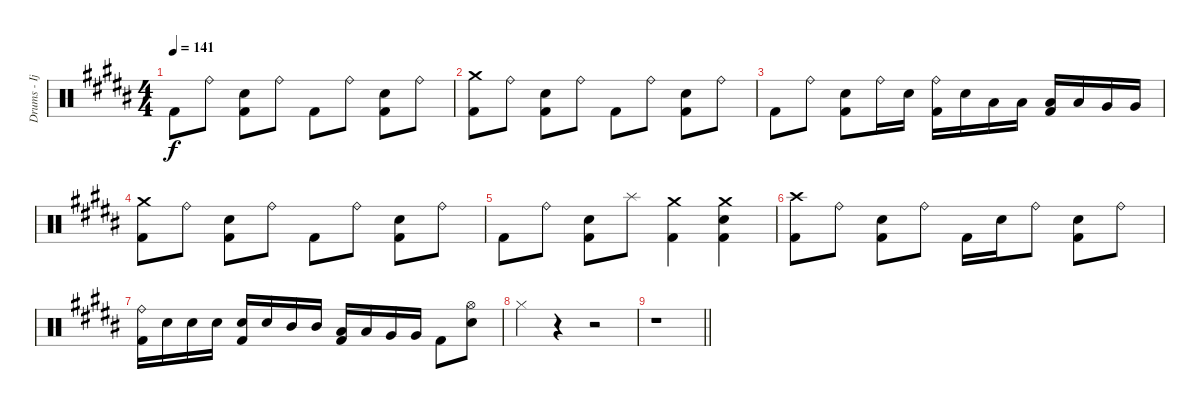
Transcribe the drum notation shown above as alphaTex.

\track ("Drums - Ijichi" "Drums - Ij") {instrument percussion}
\staff {score}
\articulation defaults
\ts (4 4)
\tempo 141
\clef neutral
\ks b "Kick (hit) 2".8{dy f} "Ride (bell)".8
("Electric Snare (hit)" "Kick (hit) 2").8 "Ride (bell)".8 "Kick (hit) 2".8 "Ride (bell)".8 ("Electric Snare (hit)" "Kick (hit) 2").8 "Ride (bell)".8 |
("Crash medium (hit)" "Kick (hit) 2").8 "Ride (bell)".8 ("Electric Snare (hit)" "Kick (hit) 2").8 "Ride (bell)".8 "Kick (hit) 2".8 "Ride (bell)".8 ("Electric Snare (hit)" "Kick (hit) 2").8 "Ride (bell)".8 |
"Kick (hit) 2".8 "Ride (bell)".8 ("Electric Snare (hit)" "Kick (hit) 2").8 "Ride (bell)".16 "Electric Snare (hit)".16 ("Ride (bell)" "Kick (hit) 2").16 "Electric Snare (hit)".16 "Low Tom (hit)".16 "Low Tom (hit)".16 ("Low Tom (hit)" "Kick (hit) 2").16 "Low Tom (hit)".16 "Very Low Tom (hit)".16 "Very Low Tom (hit)".16 |
("Crash medium (hit)" "Kick (hit) 2").8 "Ride (bell)".8 ("Electric Snare (hit)" "Kick (hit) 2").8 "Ride (bell)".8 "Kick (hit) 2".8 "Ride (bell)".8 ("Electric Snare (hit)" "Kick (hit) 2").8 "Ride (bell)".8 |
"Kick (hit) 2".8 "Ride (bell)".8 ("Electric Snare (hit)" "Kick (hit) 2").8 "Splash (hit)".8 ("Crash medium (hit)" "Kick (hit) 2").4 ("Crash medium (hit)" "Electric Snare (hit)" "Kick (hit) 2").4 |
("Crash high (hit)" "Kick (hit) 2").8 "Ride (bell)".8 ("Electric Snare (hit)" "Kick (hit) 2").8 "Ride (bell)".8 "Kick (hit) 2".16 "Electric Snare (hit)".16 "Ride (bell)".8 ("Electric Snare (hit)" "Kick (hit) 2").8 "Ride (bell)".8 |
("Ride (bell)" "Kick (hit) 2").16 "Electric Snare (hit)".16 "Electric Snare (hit)".16 "Electric Snare (hit)".16 ("Electric Snare (hit)" "Kick (hit) 2").16 "Electric Snare (hit)".16 "Mid Tom (hit)".16 "Mid Tom (hit)".16 ("Low Tom (hit)" "Kick (hit) 2").16 "Low Tom (hit)".16 "Very Low Tom (hit)".16 "Very Low Tom (hit)".16 "Kick (hit) 2".8 ("Hi-Hat (open)" "Electric Snare (hit)").8 |
"Hi-Hat (closed)".4 r.4 r.2 |
\barLineRight lightlight
r.1
